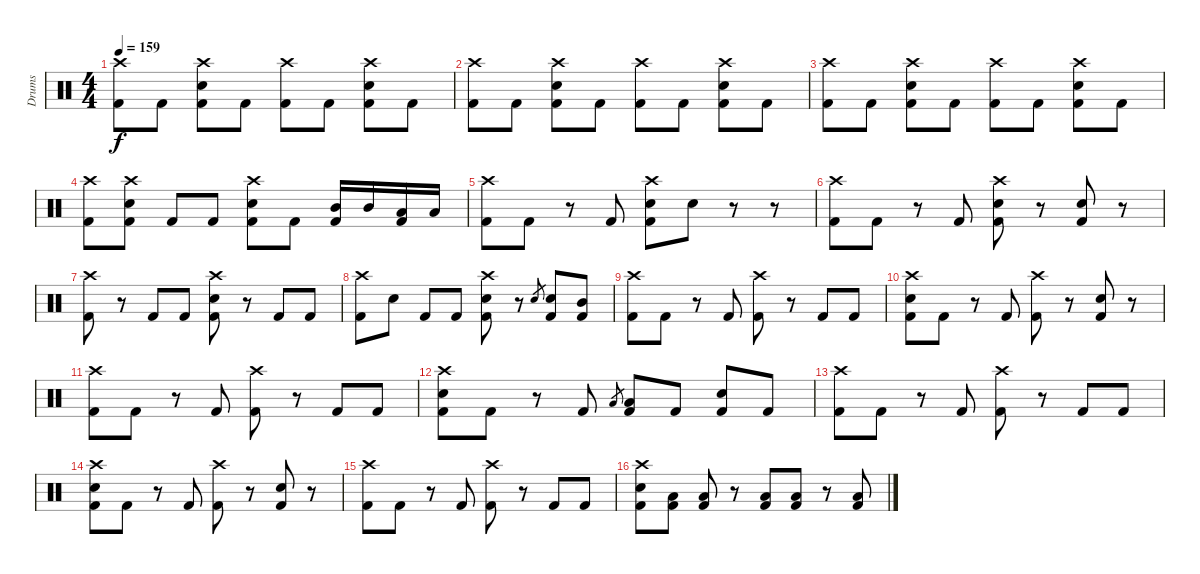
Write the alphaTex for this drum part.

\track ("Drums" "Drums") {instrument percussion}
\staff {score}
\articulation defaults
\ts (4 4)
\tempo 159
\clef neutral
\ks c
("Crash high (hit)" "Kick (hit) 2").8{dy f} "Kick (hit) 2".8 ("Crash high (hit)" "Electric Snare (hit)" "Kick (hit) 2").8 "Kick (hit) 2".8 ("Crash high (hit)" "Kick (hit) 2").8 "Kick (hit) 2".8 ("Crash high (hit)" "Electric Snare (hit)" "Kick (hit) 2").8 "Kick (hit) 2".8 |
("Crash high (hit)" "Kick (hit) 2").8 "Kick (hit) 2".8 ("Crash high (hit)" "Electric Snare (hit)" "Kick (hit) 2").8 "Kick (hit) 2".8 ("Crash high (hit)" "Kick (hit) 2").8 "Kick (hit) 2".8 ("Crash high (hit)" "Electric Snare (hit)" "Kick (hit) 2").8 "Kick (hit) 2".8 |
("Crash high (hit)" "Kick (hit) 2").8 "Kick (hit) 2".8 ("Crash high (hit)" "Electric Snare (hit)" "Kick (hit) 2").8 "Kick (hit) 2".8 ("Crash high (hit)" "Kick (hit) 2").8 "Kick (hit) 2".8 ("Crash high (hit)" "Electric Snare (hit)" "Kick (hit) 2").8 "Kick (hit) 2".8 |
("Crash high (hit)" "Kick (hit) 2").8 ("Crash high (hit)" "Electric Snare (hit)" "Kick (hit) 2").8 "Kick (hit) 2".8 "Kick (hit) 2".8 ("Crash high (hit)" "Electric Snare (hit)" "Kick (hit) 2").8 "Kick (hit) 2".8 ("Mid Tom (hit)" "Kick (hit) 2").16 "Mid Tom (hit)".16 ("Low Tom (hit)" "Kick (hit) 2").16 "Low Tom (hit)".16 |
("Crash high (hit)" "Kick (hit) 2").8 "Kick (hit) 2".8 r.8 "Kick (hit) 2".8 ("Crash high (hit)" "Electric Snare (hit)" "Kick (hit) 2").8 "Electric Snare (hit)".8 r.8 r.8 |
("Crash high (hit)" "Kick (hit) 2").8 "Kick (hit) 2".8 r.8 "Kick (hit) 2".8 ("Crash high (hit)" "Electric Snare (hit)" "Kick (hit) 2").8 r.8 ("Electric Snare (hit)" "Kick (hit) 2").8 r.8 |
("Crash high (hit)" "Kick (hit) 2").8 r.8 "Kick (hit) 2".8 "Kick (hit) 2".8 ("Crash high (hit)" "Electric Snare (hit)" "Kick (hit) 2").8 r.8 "Kick (hit) 2".8 "Kick (hit) 2".8 |
("Crash high (hit)" "Kick (hit) 2").8 "Electric Snare (hit)".8 "Kick (hit) 2".8 "Kick (hit) 2".8 ("Crash high (hit)" "Electric Snare (hit)" "Kick (hit) 2").8 r.8 "Electric Snare (hit)".8{gr} ("Electric Snare (hit)" "Kick (hit) 2").8 ("Mid Tom (hit)" "Kick (hit) 2").8 |
("Crash high (hit)" "Kick (hit) 2").8 "Kick (hit) 2".8 r.8 "Kick (hit) 2".8 ("Crash high (hit)" "Kick (hit) 2").8 r.8 "Kick (hit) 2".8 "Kick (hit) 2".8 |
("Crash high (hit)" "Electric Snare (hit)" "Kick (hit) 2").8 "Kick (hit) 2".8 r.8 "Kick (hit) 2".8 ("Crash high (hit)" "Kick (hit) 2").8 r.8 ("Electric Snare (hit)" "Kick (hit) 2").8 r.8 |
("Crash high (hit)" "Kick (hit) 2").8 "Kick (hit) 2".8 r.8 "Kick (hit) 2".8 ("Crash high (hit)" "Kick (hit) 2").8 r.8 "Kick (hit) 2".8 "Kick (hit) 2".8 |
("Crash high (hit)" "Electric Snare (hit)" "Kick (hit) 2").8 "Kick (hit) 2".8 r.8 "Kick (hit) 2".8 "Low Floor Tom (hit)".8{gr} ("Low Floor Tom (hit)" "Kick (hit) 2").8 "Kick (hit) 2".8 ("Electric Snare (hit)" "Kick (hit) 2").8 "Kick (hit) 2".8 |
("Crash high (hit)" "Kick (hit) 2").8 "Kick (hit) 2".8 r.8 "Kick (hit) 2".8 ("Crash high (hit)" "Kick (hit) 2").8 r.8 "Kick (hit) 2".8 "Kick (hit) 2".8 |
("Crash high (hit)" "Electric Snare (hit)" "Kick (hit) 2").8 "Kick (hit) 2".8 r.8 "Kick (hit) 2".8 ("Crash high (hit)" "Kick (hit) 2").8 r.8 ("Electric Snare (hit)" "Kick (hit) 2").8 r.8 |
("Crash high (hit)" "Kick (hit) 2").8 "Kick (hit) 2".8 r.8 "Kick (hit) 2".8 ("Crash high (hit)" "Kick (hit) 2").8 r.8 "Kick (hit) 2".8 "Kick (hit) 2".8 |
("Crash high (hit)" "Electric Snare (hit)" "Kick (hit) 2").8 ("Low Floor Tom (hit)" "Kick (hit) 2").8 ("Low Floor Tom (hit)" "Kick (hit) 2").8 r.8 ("Low Floor Tom (hit)" "Kick (hit) 2").8 ("Low Floor Tom (hit)" "Kick (hit) 2").8 r.8 ("Low Floor Tom (hit)" "Kick (hit) 2").8
